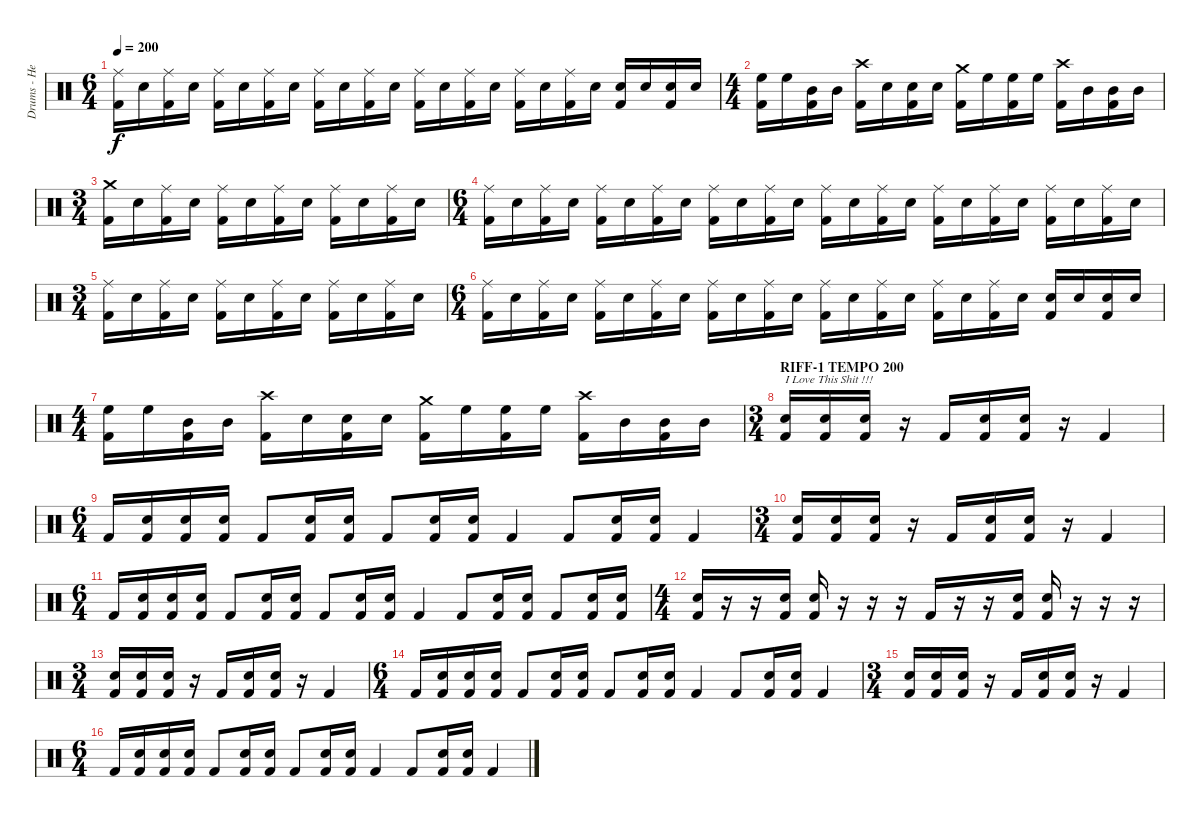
\track ("Drums - Hellhammer" "Drums - He") {instrument percussion}
\staff {score}
\articulation defaults
\ts (6 4)
\tempo 200
\clef neutral
\ks c
("Ride (middle)" "Kick (hit) 2").16{dy f} "Electric Snare (hit)".16 ("Ride (middle)" "Kick (hit) 2").16 "Electric Snare (hit)".16 ("Ride (middle)" "Kick (hit) 2").16 "Electric Snare (hit)".16 ("Ride (middle)" "Kick (hit) 2").16 "Electric Snare (hit)".16 ("Ride (middle)" "Kick (hit) 2").16 "Electric Snare (hit)".16 ("Ride (middle)" "Kick (hit) 2").16 "Electric Snare (hit)".16 ("Ride (middle)" "Kick (hit) 2").16 "Electric Snare (hit)".16 ("Ride (middle)" "Kick (hit) 2").16 "Electric Snare (hit)".16 ("Ride (middle)" "Kick (hit) 2").16 "Electric Snare (hit)".16 ("Ride (middle)" "Kick (hit) 2").16 "Electric Snare (hit)".16 ("Electric Snare (hit)" "Kick (hit) 2").16 "Electric Snare (hit)".16 ("Electric Snare (hit)" "Kick (hit) 2").16 "Electric Snare (hit)".16 |
\ts (4 4)
("High Floor Tom (hit)" "Kick (hit) 2").16 "High Floor Tom (hit)".16 ("Mid Tom (hit)" "Kick (hit) 2").16 "Mid Tom (hit)".16 ("Crash high (hit)" "Kick (hit) 2").16 "Electric Snare (hit)".16 ("Electric Snare (hit)" "Kick (hit) 2").16 "Electric Snare (hit)".16 ("Crash medium (hit)" "Kick (hit) 2").16 "High Floor Tom (hit)".16 ("High Floor Tom (hit)" "Kick (hit) 2").16 "High Floor Tom (hit)".16 ("Crash high (hit)" "Kick (hit) 2").16 "Mid Tom (hit)".16 ("Mid Tom (hit)" "Kick (hit) 2").16 "Mid Tom (hit)".16 |
\ts (3 4)
("Crash medium (hit)" "Kick (hit) 2").16 "Electric Snare (hit)".16 ("Ride (middle)" "Kick (hit) 2").16 "Electric Snare (hit)".16 ("Ride (middle)" "Kick (hit) 2").16 "Electric Snare (hit)".16 ("Ride (middle)" "Kick (hit) 2").16 "Electric Snare (hit)".16 ("Ride (middle)" "Kick (hit) 2").16 "Electric Snare (hit)".16 ("Ride (middle)" "Kick (hit) 2").16 "Electric Snare (hit)".16 |
\ts (6 4)
("Ride (middle)" "Kick (hit) 2").16 "Electric Snare (hit)".16 ("Ride (middle)" "Kick (hit) 2").16 "Electric Snare (hit)".16 ("Ride (middle)" "Kick (hit) 2").16 "Electric Snare (hit)".16 ("Ride (middle)" "Kick (hit) 2").16 "Electric Snare (hit)".16 ("Ride (middle)" "Kick (hit) 2").16 "Electric Snare (hit)".16 ("Ride (middle)" "Kick (hit) 2").16 "Electric Snare (hit)".16 ("Ride (middle)" "Kick (hit) 2").16 "Electric Snare (hit)".16 ("Ride (middle)" "Kick (hit) 2").16 "Electric Snare (hit)".16 ("Ride (middle)" "Kick (hit) 2").16 "Electric Snare (hit)".16 ("Ride (middle)" "Kick (hit) 2").16 "Electric Snare (hit)".16 ("Ride (middle)" "Kick (hit) 2").16 "Electric Snare (hit)".16 ("Ride (middle)" "Kick (hit) 2").16 "Electric Snare (hit)".16 |
\ts (3 4)
("Ride (middle)" "Kick (hit) 2").16 "Electric Snare (hit)".16 ("Ride (middle)" "Kick (hit) 2").16 "Electric Snare (hit)".16 ("Ride (middle)" "Kick (hit) 2").16 "Electric Snare (hit)".16 ("Ride (middle)" "Kick (hit) 2").16 "Electric Snare (hit)".16 ("Ride (middle)" "Kick (hit) 2").16 "Electric Snare (hit)".16 ("Ride (middle)" "Kick (hit) 2").16 "Electric Snare (hit)".16 |
\ts (6 4)
("Ride (middle)" "Kick (hit) 2").16 "Electric Snare (hit)".16 ("Ride (middle)" "Kick (hit) 2").16 "Electric Snare (hit)".16 ("Ride (middle)" "Kick (hit) 2").16 "Electric Snare (hit)".16 ("Ride (middle)" "Kick (hit) 2").16 "Electric Snare (hit)".16 ("Ride (middle)" "Kick (hit) 2").16 "Electric Snare (hit)".16 ("Ride (middle)" "Kick (hit) 2").16 "Electric Snare (hit)".16 ("Ride (middle)" "Kick (hit) 2").16 "Electric Snare (hit)".16 ("Ride (middle)" "Kick (hit) 2").16 "Electric Snare (hit)".16 ("Ride (middle)" "Kick (hit) 2").16 "Electric Snare (hit)".16 ("Ride (middle)" "Kick (hit) 2").16 "Electric Snare (hit)".16 ("Electric Snare (hit)" "Kick (hit) 2").16 "Electric Snare (hit)".16 ("Electric Snare (hit)" "Kick (hit) 2").16 "Electric Snare (hit)".16 |
\ts (4 4)
("High Floor Tom (hit)" "Kick (hit) 2").16 "High Floor Tom (hit)".16 ("Mid Tom (hit)" "Kick (hit) 2").16 "Mid Tom (hit)".16 ("Crash high (hit)" "Kick (hit) 2").16 "Electric Snare (hit)".16 ("Electric Snare (hit)" "Kick (hit) 2").16 "Electric Snare (hit)".16 ("Crash medium (hit)" "Kick (hit) 2").16 "High Floor Tom (hit)".16 ("High Floor Tom (hit)" "Kick (hit) 2").16 "High Floor Tom (hit)".16 ("Crash high (hit)" "Kick (hit) 2").16 "Mid Tom (hit)".16 ("Mid Tom (hit)" "Kick (hit) 2").16 "Mid Tom (hit)".16 |
\ts (3 4)
\section ("" "RIFF-1 TEMPO 200")
("Electric Snare (hit)" "Kick (hit) 2").16{txt "I Love This Shit !!!"} ("Electric Snare (hit)" "Kick (hit) 2").16 ("Electric Snare (hit)" "Kick (hit) 2").16 r.16 "Kick (hit) 2".16 ("Electric Snare (hit)" "Kick (hit) 2").16 ("Electric Snare (hit)" "Kick (hit) 2").16 r.16 "Kick (hit) 2".4 |
\ts (6 4)
"Kick (hit) 2".16 ("Electric Snare (hit)" "Kick (hit) 2").16 ("Electric Snare (hit)" "Kick (hit) 2").16 ("Electric Snare (hit)" "Kick (hit) 2").16 "Kick (hit) 2".8 ("Electric Snare (hit)" "Kick (hit) 2").16 ("Electric Snare (hit)" "Kick (hit) 2").16 "Kick (hit) 2".8 ("Electric Snare (hit)" "Kick (hit) 2").16 ("Electric Snare (hit)" "Kick (hit) 2").16 "Kick (hit) 2".4 "Kick (hit) 2".8 ("Electric Snare (hit)" "Kick (hit) 2").16 ("Electric Snare (hit)" "Kick (hit) 2").16 "Kick (hit) 2".4 |
\ts (3 4)
("Electric Snare (hit)" "Kick (hit) 2").16 ("Electric Snare (hit)" "Kick (hit) 2").16 ("Electric Snare (hit)" "Kick (hit) 2").16 r.16 "Kick (hit) 2".16 ("Electric Snare (hit)" "Kick (hit) 2").16 ("Electric Snare (hit)" "Kick (hit) 2").16 r.16 "Kick (hit) 2".4 |
\ts (6 4)
"Kick (hit) 2".16 ("Electric Snare (hit)" "Kick (hit) 2").16 ("Electric Snare (hit)" "Kick (hit) 2").16 ("Electric Snare (hit)" "Kick (hit) 2").16 "Kick (hit) 2".8 ("Electric Snare (hit)" "Kick (hit) 2").16 ("Electric Snare (hit)" "Kick (hit) 2").16 "Kick (hit) 2".8 ("Electric Snare (hit)" "Kick (hit) 2").16 ("Electric Snare (hit)" "Kick (hit) 2").16 "Kick (hit) 2".4 "Kick (hit) 2".8 ("Electric Snare (hit)" "Kick (hit) 2").16 ("Electric Snare (hit)" "Kick (hit) 2").16 "Kick (hit) 2".8 ("Electric Snare (hit)" "Kick (hit) 2").16 ("Electric Snare (hit)" "Kick (hit) 2").16 |
\ts (4 4)
("Electric Snare (hit)" "Kick (hit) 2").16 r.16 r.16 ("Electric Snare (hit)" "Kick (hit) 2").16 ("Electric Snare (hit)" "Kick (hit) 2").16 r.16 r.16 r.16 "Kick (hit) 2".16 r.16 r.16 ("Electric Snare (hit)" "Kick (hit) 2").16 ("Electric Snare (hit)" "Kick (hit) 2").16 r.16 r.16 r.16 |
\ts (3 4)
("Electric Snare (hit)" "Kick (hit) 2").16 ("Electric Snare (hit)" "Kick (hit) 2").16 ("Electric Snare (hit)" "Kick (hit) 2").16 r.16 "Kick (hit) 2".16 ("Electric Snare (hit)" "Kick (hit) 2").16 ("Electric Snare (hit)" "Kick (hit) 2").16 r.16 "Kick (hit) 2".4 |
\ts (6 4)
"Kick (hit) 2".16 ("Electric Snare (hit)" "Kick (hit) 2").16 ("Electric Snare (hit)" "Kick (hit) 2").16 ("Electric Snare (hit)" "Kick (hit) 2").16 "Kick (hit) 2".8 ("Electric Snare (hit)" "Kick (hit) 2").16 ("Electric Snare (hit)" "Kick (hit) 2").16 "Kick (hit) 2".8 ("Electric Snare (hit)" "Kick (hit) 2").16 ("Electric Snare (hit)" "Kick (hit) 2").16 "Kick (hit) 2".4 "Kick (hit) 2".8 ("Electric Snare (hit)" "Kick (hit) 2").16 ("Electric Snare (hit)" "Kick (hit) 2").16 "Kick (hit) 2".4 |
\ts (3 4)
("Electric Snare (hit)" "Kick (hit) 2").16 ("Electric Snare (hit)" "Kick (hit) 2").16 ("Electric Snare (hit)" "Kick (hit) 2").16 r.16 "Kick (hit) 2".16 ("Electric Snare (hit)" "Kick (hit) 2").16 ("Electric Snare (hit)" "Kick (hit) 2").16 r.16 "Kick (hit) 2".4 |
\ts (6 4)
"Kick (hit) 2".16 ("Electric Snare (hit)" "Kick (hit) 2").16 ("Electric Snare (hit)" "Kick (hit) 2").16 ("Electric Snare (hit)" "Kick (hit) 2").16 "Kick (hit) 2".8 ("Electric Snare (hit)" "Kick (hit) 2").16 ("Electric Snare (hit)" "Kick (hit) 2").16 "Kick (hit) 2".8 ("Electric Snare (hit)" "Kick (hit) 2").16 ("Electric Snare (hit)" "Kick (hit) 2").16 "Kick (hit) 2".4 "Kick (hit) 2".8 ("Electric Snare (hit)" "Kick (hit) 2").16 ("Electric Snare (hit)" "Kick (hit) 2").16 "Kick (hit) 2".4
